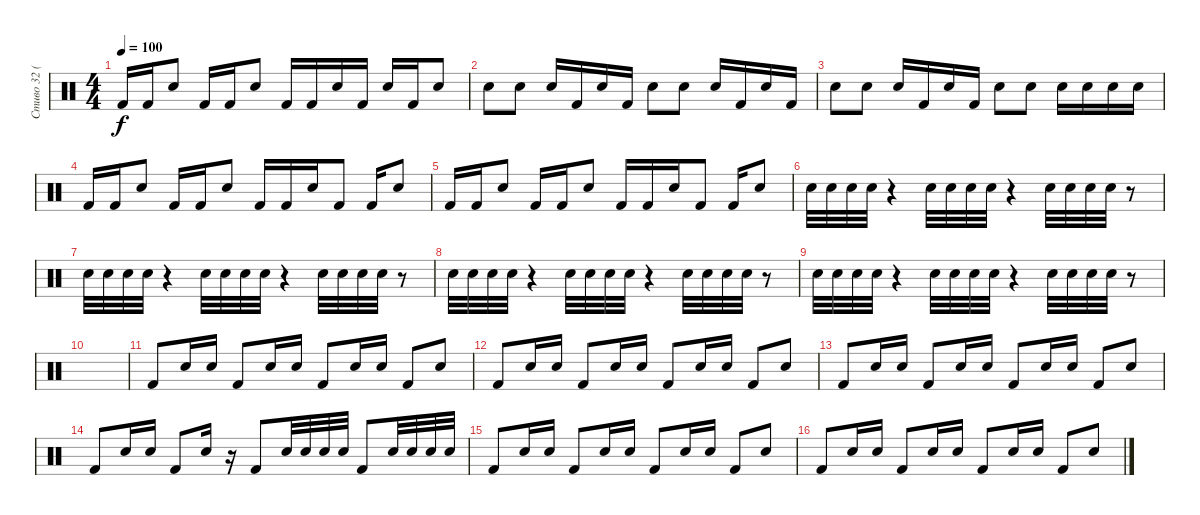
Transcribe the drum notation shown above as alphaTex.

\track ("Стиво 32 (Ударные)" "Стиво 32 (") {instrument percussion}
\staff {score}
\articulation defaults
\ts (4 4)
\tempo 100
\clef neutral
\ks c "Kick (hit) 2".16{dy f} "Kick (hit) 2".16 "Electric Snare (hit)".8 "Kick (hit) 2".16 "Kick (hit) 2".16 "Electric Snare (hit)".8 "Kick (hit) 2".16 "Kick (hit) 2".16 "Electric Snare (hit)".16 "Kick (hit) 2".16 "Electric Snare (hit)".16 "Kick (hit) 2".16 "Electric Snare (hit)".8
|
"Electric Snare (hit)".8 "Electric Snare (hit)".8 "Electric Snare (hit)".16 "Kick (hit) 2".16 "Electric Snare (hit)".16 "Kick (hit) 2".16 "Electric Snare (hit)".8 "Electric Snare (hit)".8 "Electric Snare (hit)".16 "Kick (hit) 2".16 "Electric Snare (hit)".16 "Kick (hit) 2".16 |
"Electric Snare (hit)".8 "Electric Snare (hit)".8 "Electric Snare (hit)".16 "Kick (hit) 2".16 "Electric Snare (hit)".16 "Kick (hit) 2".16 "Electric Snare (hit)".8 "Electric Snare (hit)".8 "Electric Snare (hit)".16 "Electric Snare (hit)".16 "Electric Snare (hit)".16 "Electric Snare (hit)".16 |
"Kick (hit) 2".16 "Kick (hit) 2".16 "Electric Snare (hit)".8 "Kick (hit) 2".16 "Kick (hit) 2".16 "Electric Snare (hit)".8 "Kick (hit) 2".16 "Kick (hit) 2".16 "Electric Snare (hit)".16 "Kick (hit) 2".8 "Kick (hit) 2".16 "Electric Snare (hit)".8 |
"Kick (hit) 2".16 "Kick (hit) 2".16 "Electric Snare (hit)".8 "Kick (hit) 2".16 "Kick (hit) 2".16 "Electric Snare (hit)".8 "Kick (hit) 2".16 "Kick (hit) 2".16 "Electric Snare (hit)".16 "Kick (hit) 2".8 "Kick (hit) 2".16 "Electric Snare (hit)".8 |
"Electric Snare (hit)".32 "Electric Snare (hit)".32 "Electric Snare (hit)".32 "Electric Snare (hit)".32 r.4 "Electric Snare (hit)".32 "Electric Snare (hit)".32 "Electric Snare (hit)".32 "Electric Snare (hit)".32 r.4 "Electric Snare (hit)".32 "Electric Snare (hit)".32 "Electric Snare (hit)".32 "Electric Snare (hit)".32 r.8 |
"Electric Snare (hit)".32 "Electric Snare (hit)".32 "Electric Snare (hit)".32 "Electric Snare (hit)".32 r.4 "Electric Snare (hit)".32 "Electric Snare (hit)".32 "Electric Snare (hit)".32 "Electric Snare (hit)".32 r.4 "Electric Snare (hit)".32 "Electric Snare (hit)".32 "Electric Snare (hit)".32 "Electric Snare (hit)".32 r.8 |
"Electric Snare (hit)".32 "Electric Snare (hit)".32 "Electric Snare (hit)".32 "Electric Snare (hit)".32 r.4 "Electric Snare (hit)".32 "Electric Snare (hit)".32 "Electric Snare (hit)".32 "Electric Snare (hit)".32 r.4 "Electric Snare (hit)".32 "Electric Snare (hit)".32 "Electric Snare (hit)".32 "Electric Snare (hit)".32 r.8 |
"Electric Snare (hit)".32 "Electric Snare (hit)".32 "Electric Snare (hit)".32 "Electric Snare (hit)".32 r.4 "Electric Snare (hit)".32 "Electric Snare (hit)".32 "Electric Snare (hit)".32 "Electric Snare (hit)".32 r.4 "Electric Snare (hit)".32 "Electric Snare (hit)".32 "Electric Snare (hit)".32 "Electric Snare (hit)".32 r.8 |
|
"Kick (hit) 2".8 "Electric Snare (hit)".16 "Electric Snare (hit)".16 "Kick (hit) 2".8 "Electric Snare (hit)".16 "Electric Snare (hit)".16 "Kick (hit) 2".8 "Electric Snare (hit)".16 "Electric Snare (hit)".16 "Kick (hit) 2".8 "Electric Snare (hit)".8 |
"Kick (hit) 2".8 "Electric Snare (hit)".16 "Electric Snare (hit)".16 "Kick (hit) 2".8 "Electric Snare (hit)".16 "Electric Snare (hit)".16 "Kick (hit) 2".8 "Electric Snare (hit)".16 "Electric Snare (hit)".16 "Kick (hit) 2".8 "Electric Snare (hit)".8 |
"Kick (hit) 2".8 "Electric Snare (hit)".16 "Electric Snare (hit)".16 "Kick (hit) 2".8 "Electric Snare (hit)".16 "Electric Snare (hit)".16 "Kick (hit) 2".8 "Electric Snare (hit)".16 "Electric Snare (hit)".16 "Kick (hit) 2".8 "Electric Snare (hit)".8 |
"Kick (hit) 2".8 "Electric Snare (hit)".16 "Electric Snare (hit)".16 "Kick (hit) 2".8 "Electric Snare (hit)".16 r.16 "Kick (hit) 2".8 "Electric Snare (hit)".32 "Electric Snare (hit)".32 "Electric Snare (hit)".32 "Electric Snare (hit)".32 "Kick (hit) 2".8 "Electric Snare (hit)".32 "Electric Snare (hit)".32 "Electric Snare (hit)".32 "Electric Snare (hit)".32 |
"Kick (hit) 2".8 "Electric Snare (hit)".16 "Electric Snare (hit)".16 "Kick (hit) 2".8 "Electric Snare (hit)".16 "Electric Snare (hit)".16 "Kick (hit) 2".8 "Electric Snare (hit)".16 "Electric Snare (hit)".16 "Kick (hit) 2".8 "Electric Snare (hit)".8 |
"Kick (hit) 2".8 "Electric Snare (hit)".16 "Electric Snare (hit)".16 "Kick (hit) 2".8 "Electric Snare (hit)".16 "Electric Snare (hit)".16 "Kick (hit) 2".8 "Electric Snare (hit)".16 "Electric Snare (hit)".16 "Kick (hit) 2".8 "Electric Snare (hit)".8
